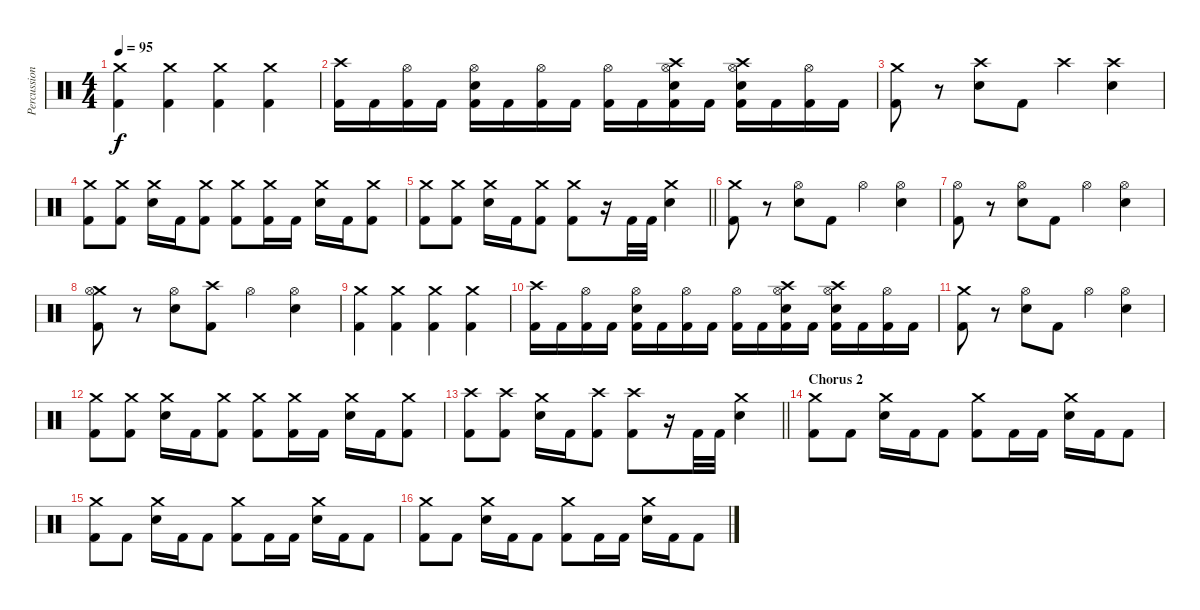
\track ("Percussion" "Percussion") {instrument percussion}
\staff {score}
\articulation defaults
\ts (4 4)
\tempo 95
\clef neutral
\ks c
("Crash medium (hit)" "Kick (hit) 2").4{dy f} ("Crash medium (hit)" "Kick (hit) 2").4 ("Crash medium (hit)" "Kick (hit) 2").4 ("Crash medium (hit)" "Kick (hit) 2").4 |
("Crash high (hit)" "Kick (hit) 2").16 "Kick (hit) 2".16 ("Hi-Hat (open)" "Kick (hit) 2").16 "Kick (hit) 2".16 ("Hi-Hat (open)" "Electric Snare (hit)" "Kick (hit) 2").16 "Kick (hit) 2".16 ("Hi-Hat (open)" "Kick (hit) 2").16 "Kick (hit) 2".16 ("Hi-Hat (open)" "Kick (hit) 2").16 "Kick (hit) 2".16 ("Crash high (hit)" "Hi-Hat (open)" "Electric Snare (hit)" "Kick (hit) 2").16 "Kick (hit) 2".16 ("Crash high (hit)" "Hi-Hat (open)" "Electric Snare (hit)" "Kick (hit) 2").16 "Kick (hit) 2".16 ("Hi-Hat (open)" "Kick (hit) 2").16 "Kick (hit) 2".16 |
("Crash medium (hit)" "Kick (hit) 2").8 r.8 ("Crash high (hit)" "Electric Snare (hit)").8 "Kick (hit) 2".8 "Crash high (hit)".4 ("Crash high (hit)" "Electric Snare (hit)").4 |
("Crash medium (hit)" "Kick (hit) 2").8 ("Crash medium (hit)" "Kick (hit) 2").8 ("Crash medium (hit)" "Electric Snare (hit)").16 "Kick (hit) 2".16 ("Crash medium (hit)" "Kick (hit) 2").8 ("Crash medium (hit)" "Kick (hit) 2").8 ("Crash medium (hit)" "Kick (hit) 2").16 "Kick (hit) 2".16 ("Crash medium (hit)" "Electric Snare (hit)").16 "Kick (hit) 2".16 ("Crash medium (hit)" "Kick (hit) 2").8 |
\barLineRight lightlight
("Crash medium (hit)" "Kick (hit) 2").8 ("Crash medium (hit)" "Kick (hit) 2").8 ("Crash medium (hit)" "Electric Snare (hit)").16 "Kick (hit) 2".16 ("Crash medium (hit)" "Kick (hit) 2").8 ("Crash medium (hit)" "Kick (hit) 2").8 r.16 "Kick (hit) 2".32 "Kick (hit) 2".32 ("Crash medium (hit)" "Electric Snare (hit)").4 |
("Crash medium (hit)" "Kick (hit) 2").8 r.8 ("Hi-Hat (open)" "Electric Snare (hit)").8 "Kick (hit) 2".8 "Hi-Hat (open)".4 ("Hi-Hat (open)" "Electric Snare (hit)").4 |
("Hi-Hat (open)" "Kick (hit) 2").8 r.8 ("Hi-Hat (open)" "Electric Snare (hit)").8 "Kick (hit) 2".8 "Hi-Hat (open)".4 ("Hi-Hat (open)" "Electric Snare (hit)").4 |
("Crash medium (hit)" "Hi-Hat (open)" "Kick (hit) 2").8 r.8 ("Hi-Hat (open)" "Electric Snare (hit)").8 ("Crash high (hit)" "Kick (hit) 2").8 "Hi-Hat (open)".4 ("Hi-Hat (open)" "Electric Snare (hit)").4 |
("Crash medium (hit)" "Kick (hit) 2").4 ("Crash medium (hit)" "Kick (hit) 2").4 ("Crash medium (hit)" "Kick (hit) 2").4 ("Crash medium (hit)" "Kick (hit) 2").4 |
("Crash high (hit)" "Kick (hit) 2").16 "Kick (hit) 2".16 ("Hi-Hat (open)" "Kick (hit) 2").16 "Kick (hit) 2".16 ("Hi-Hat (open)" "Electric Snare (hit)" "Kick (hit) 2").16 "Kick (hit) 2".16 ("Hi-Hat (open)" "Kick (hit) 2").16 "Kick (hit) 2".16 ("Hi-Hat (open)" "Kick (hit) 2").16 "Kick (hit) 2".16 ("Crash high (hit)" "Hi-Hat (open)" "Electric Snare (hit)" "Kick (hit) 2").16 "Kick (hit) 2".16 ("Crash high (hit)" "Hi-Hat (open)" "Electric Snare (hit)" "Kick (hit) 2").16 "Kick (hit) 2".16 ("Hi-Hat (open)" "Kick (hit) 2").16 "Kick (hit) 2".16 |
("Crash medium (hit)" "Kick (hit) 2").8 r.8 ("Hi-Hat (open)" "Electric Snare (hit)").8 "Kick (hit) 2".8 "Hi-Hat (open)".4 ("Hi-Hat (open)" "Electric Snare (hit)").4 |
("Crash medium (hit)" "Kick (hit) 2").8 ("Crash medium (hit)" "Kick (hit) 2").8 ("Crash medium (hit)" "Electric Snare (hit)").16 "Kick (hit) 2".16 ("Crash medium (hit)" "Kick (hit) 2").8 ("Crash medium (hit)" "Kick (hit) 2").8 ("Crash medium (hit)" "Kick (hit) 2").16 "Kick (hit) 2".16 ("Crash medium (hit)" "Electric Snare (hit)").16 "Kick (hit) 2".16 ("Crash medium (hit)" "Kick (hit) 2").8 |
\barLineRight lightlight
("Crash high (hit)" "Kick (hit) 2").8 ("Crash high (hit)" "Kick (hit) 2").8 ("Crash medium (hit)" "Electric Snare (hit)").16 "Kick (hit) 2".16 ("Crash high (hit)" "Kick (hit) 2").8 ("Crash high (hit)" "Kick (hit) 2").8 r.16 "Kick (hit) 2".32 "Kick (hit) 2".32 ("Crash medium (hit)" "Electric Snare (hit)").4 |
\section ("" "Chorus 2")
("Crash medium (hit)" "Kick (hit) 2").8 "Kick (hit) 2".8 ("Crash medium (hit)" "Electric Snare (hit)").16 "Kick (hit) 2".16 "Kick (hit) 2".8 ("Crash medium (hit)" "Kick (hit) 2").8 "Kick (hit) 2".16 "Kick (hit) 2".16 ("Crash medium (hit)" "Electric Snare (hit)").16 "Kick (hit) 2".16 "Kick (hit) 2".8 |
("Crash medium (hit)" "Kick (hit) 2").8 "Kick (hit) 2".8 ("Crash medium (hit)" "Electric Snare (hit)").16 "Kick (hit) 2".16 "Kick (hit) 2".8 ("Crash medium (hit)" "Kick (hit) 2").8 "Kick (hit) 2".16 "Kick (hit) 2".16 ("Crash medium (hit)" "Electric Snare (hit)").16 "Kick (hit) 2".16 "Kick (hit) 2".8 |
("Crash medium (hit)" "Kick (hit) 2").8 "Kick (hit) 2".8 ("Crash medium (hit)" "Electric Snare (hit)").16 "Kick (hit) 2".16 "Kick (hit) 2".8 ("Crash medium (hit)" "Kick (hit) 2").8 "Kick (hit) 2".16 "Kick (hit) 2".16 ("Crash medium (hit)" "Electric Snare (hit)").16 "Kick (hit) 2".16 "Kick (hit) 2".8
